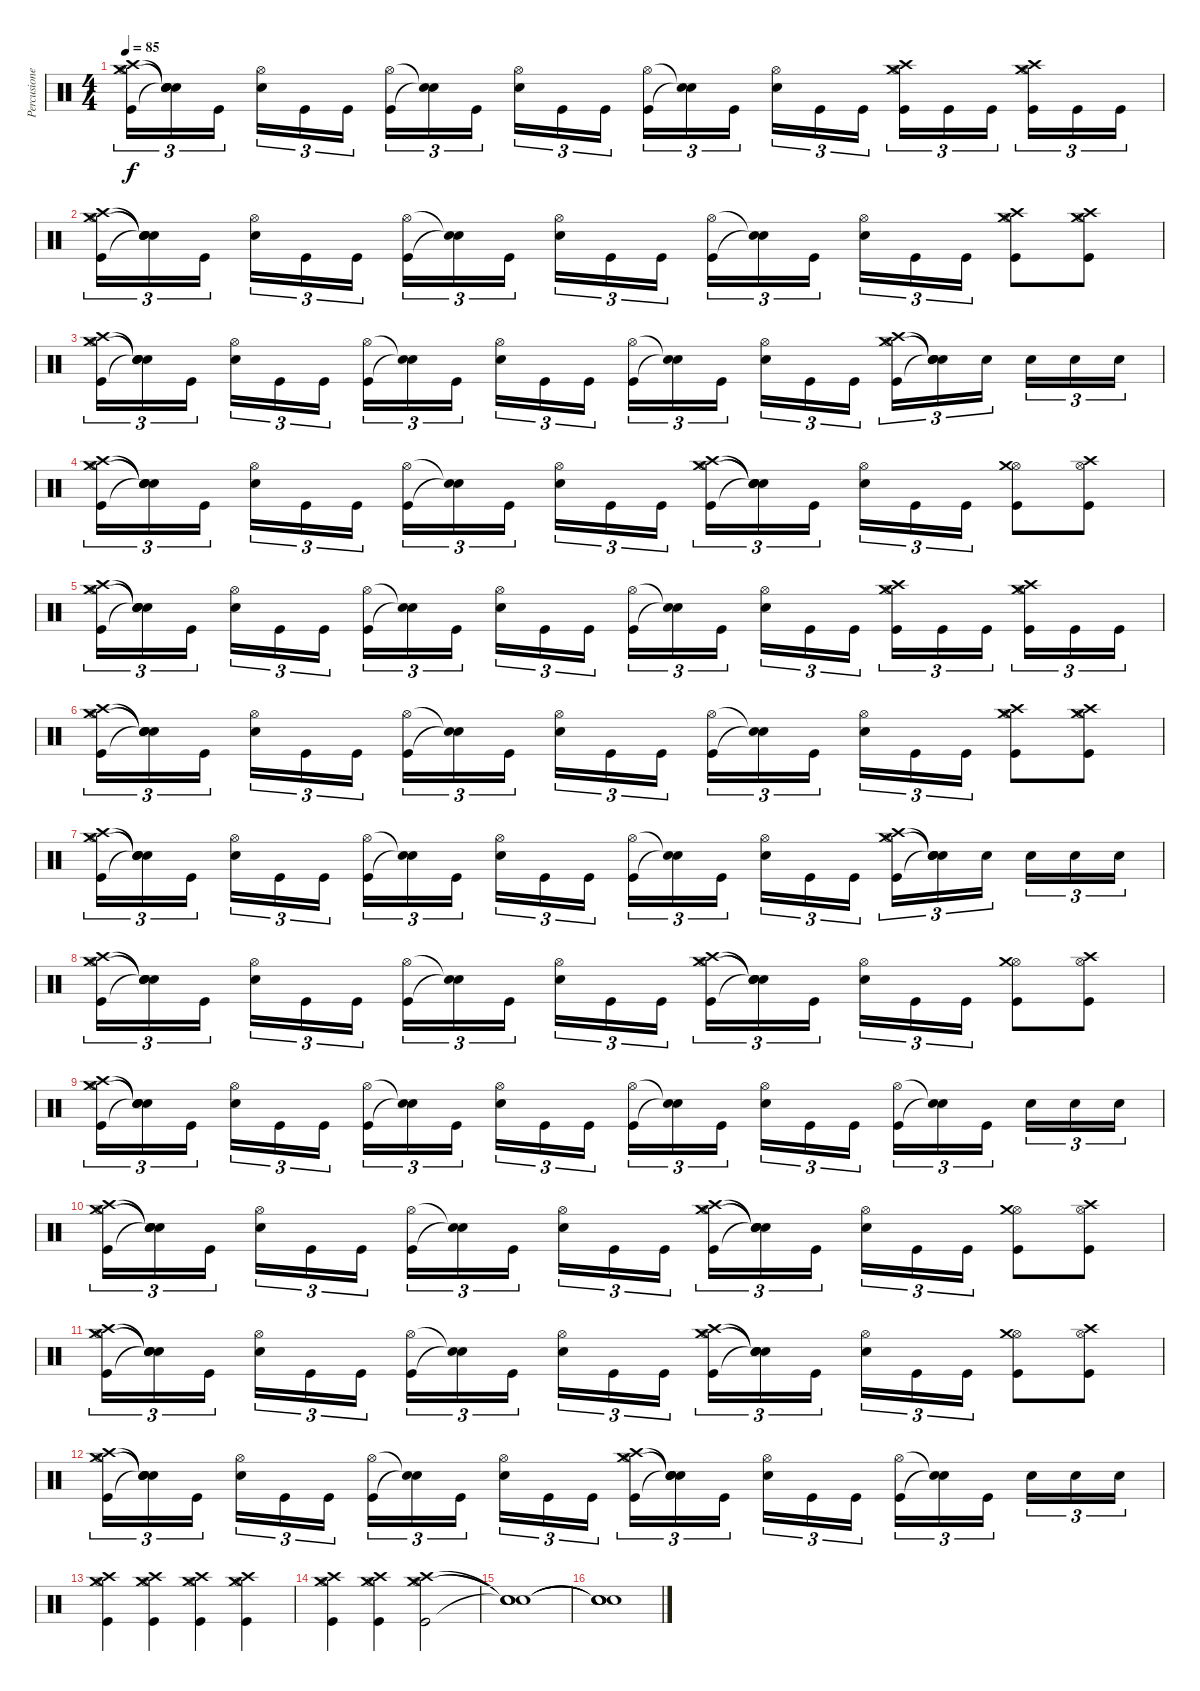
\track ("Percusiones" "Percusione") {instrument percussion}
\staff {score}
\articulation defaults
\ts (4 4)
\tempo 85
\clef neutral
\ks c
("Hi-Hat (open)" "Crash high (hit)" "Crash medium (hit)" "Kick (hit)").16{tu (3 2) dy f} ("Snare (hit)"{t} "Snare (hit)"{t} "Snare (hit)"{t} "Snare (hit)"{t}).16{tu (3 2)} "Kick (hit)".16{tu (3 2)} ("Hi-Hat (open)" "Electric Snare (hit)").16{tu (3 2)} "Kick (hit)".16{tu (3 2)} "Kick (hit)".16{tu (3 2)} ("Hi-Hat (open)" "Kick (hit)").16{tu (3 2)} ("Snare (hit)"{t} "Snare (hit)"{t}).16{tu (3 2)} "Kick (hit)".16{tu (3 2)} ("Hi-Hat (open)" "Electric Snare (hit)").16{tu (3 2)} "Kick (hit)".16{tu (3 2)} "Kick (hit)".16{tu (3 2)} ("Hi-Hat (open)" "Kick (hit)").16{tu (3 2)} ("Snare (hit)"{t} "Snare (hit)"{t}).16{tu (3 2)} "Kick (hit)".16{tu (3 2)} ("Hi-Hat (open)" "Electric Snare (hit)").16{tu (3 2)} "Kick (hit)".16{tu (3 2)} "Kick (hit)".16{tu (3 2)} ("Hi-Hat (open)" "Crash medium (hit)" "Crash high (hit)" "Kick (hit)").16{tu (3 2)} "Kick (hit)".16{tu (3 2)} "Kick (hit)".16{tu (3 2)} ("Hi-Hat (open)" "Crash high (hit)" "Crash medium (hit)" "Kick (hit)").16{tu (3 2)} "Kick (hit)".16{tu (3 2)} "Kick (hit)".16{tu (3 2)} |
("Hi-Hat (open)" "Crash high (hit)" "Crash medium (hit)" "Kick (hit)").16{tu (3 2)} ("Snare (hit)"{t} "Snare (hit)"{t} "Snare (hit)"{t} "Snare (hit)"{t}).16{tu (3 2)} "Kick (hit)".16{tu (3 2)} ("Hi-Hat (open)" "Electric Snare (hit)").16{tu (3 2)} "Kick (hit)".16{tu (3 2)} "Kick (hit)".16{tu (3 2)} ("Hi-Hat (open)" "Kick (hit)").16{tu (3 2)} ("Snare (hit)"{t} "Snare (hit)"{t}).16{tu (3 2)} "Kick (hit)".16{tu (3 2)} ("Hi-Hat (open)" "Electric Snare (hit)").16{tu (3 2)} "Kick (hit)".16{tu (3 2)} "Kick (hit)".16{tu (3 2)} ("Hi-Hat (open)" "Kick (hit)").16{tu (3 2)} ("Snare (hit)"{t} "Snare (hit)"{t}).16{tu (3 2)} "Kick (hit)".16{tu (3 2)} ("Hi-Hat (open)" "Electric Snare (hit)").16{tu (3 2)} "Kick (hit)".16{tu (3 2)} "Kick (hit)".16{tu (3 2)} ("Hi-Hat (open)" "Crash medium (hit)" "Crash high (hit)" "Kick (hit)").8 ("Hi-Hat (open)" "Crash high (hit)" "Crash medium (hit)" "Kick (hit)").8 |
("Hi-Hat (open)" "Crash high (hit)" "Crash medium (hit)" "Kick (hit)").16{tu (3 2)} ("Snare (hit)"{t} "Snare (hit)"{t} "Snare (hit)"{t} "Snare (hit)"{t}).16{tu (3 2)} "Kick (hit)".16{tu (3 2)} ("Hi-Hat (open)" "Electric Snare (hit)").16{tu (3 2)} "Kick (hit)".16{tu (3 2)} "Kick (hit)".16{tu (3 2)} ("Hi-Hat (open)" "Kick (hit)").16{tu (3 2)} ("Snare (hit)"{t} "Snare (hit)"{t}).16{tu (3 2)} "Kick (hit)".16{tu (3 2)} ("Hi-Hat (open)" "Electric Snare (hit)").16{tu (3 2)} "Kick (hit)".16{tu (3 2)} "Kick (hit)".16{tu (3 2)} ("Hi-Hat (open)" "Kick (hit)").16{tu (3 2)} ("Snare (hit)"{t} "Snare (hit)"{t}).16{tu (3 2)} "Kick (hit)".16{tu (3 2)} ("Hi-Hat (open)" "Electric Snare (hit)").16{tu (3 2)} "Kick (hit)".16{tu (3 2)} "Kick (hit)".16{tu (3 2)} ("Hi-Hat (open)" "Crash medium (hit)" "Crash high (hit)" "Kick (hit)").16{tu (3 2)} ("Snare (hit)"{t} "Snare (hit)"{t} "Snare (hit)"{t} "Snare (hit)"{t}).16{tu (3 2)} "Electric Snare (hit)".16{tu (3 2)} "Electric Snare (hit)".16{tu (3 2)} "Electric Snare (hit)".16{tu (3 2)} "Electric Snare (hit)".16{tu (3 2)} |
("Hi-Hat (open)" "Crash high (hit)" "Crash medium (hit)" "Kick (hit)").16{tu (3 2)} ("Snare (hit)"{t} "Snare (hit)"{t} "Snare (hit)"{t} "Snare (hit)"{t}).16{tu (3 2)} "Kick (hit)".16{tu (3 2)} ("Hi-Hat (open)" "Electric Snare (hit)").16{tu (3 2)} "Kick (hit)".16{tu (3 2)} "Kick (hit)".16{tu (3 2)} ("Hi-Hat (open)" "Kick (hit)").16{tu (3 2)} ("Snare (hit)"{t} "Snare (hit)"{t}).16{tu (3 2)} "Kick (hit)".16{tu (3 2)} ("Hi-Hat (open)" "Electric Snare (hit)").16{tu (3 2)} "Kick (hit)".16{tu (3 2)} "Kick (hit)".16{tu (3 2)} ("Hi-Hat (open)" "Crash high (hit)" "Crash medium (hit)" "Kick (hit)").16{tu (3 2)} ("Snare (hit)"{t} "Snare (hit)"{t} "Snare (hit)"{t} "Snare (hit)"{t}).16{tu (3 2)} "Kick (hit)".16{tu (3 2)} ("Hi-Hat (open)" "Electric Snare (hit)").16{tu (3 2)} "Kick (hit)".16{tu (3 2)} "Kick (hit)".16{tu (3 2)} ("Hi-Hat (open)" "Crash medium (hit)" "Kick (hit)").8 ("Hi-Hat (open)" "Crash high (hit)" "Kick (hit)").8 |
("Hi-Hat (open)" "Crash high (hit)" "Crash medium (hit)" "Kick (hit)").16{tu (3 2)} ("Snare (hit)"{t} "Snare (hit)"{t} "Snare (hit)"{t} "Snare (hit)"{t}).16{tu (3 2)} "Kick (hit)".16{tu (3 2)} ("Hi-Hat (open)" "Electric Snare (hit)").16{tu (3 2)} "Kick (hit)".16{tu (3 2)} "Kick (hit)".16{tu (3 2)} ("Hi-Hat (open)" "Kick (hit)").16{tu (3 2)} ("Snare (hit)"{t} "Snare (hit)"{t}).16{tu (3 2)} "Kick (hit)".16{tu (3 2)} ("Hi-Hat (open)" "Electric Snare (hit)").16{tu (3 2)} "Kick (hit)".16{tu (3 2)} "Kick (hit)".16{tu (3 2)} ("Hi-Hat (open)" "Kick (hit)").16{tu (3 2)} ("Snare (hit)"{t} "Snare (hit)"{t}).16{tu (3 2)} "Kick (hit)".16{tu (3 2)} ("Hi-Hat (open)" "Electric Snare (hit)").16{tu (3 2)} "Kick (hit)".16{tu (3 2)} "Kick (hit)".16{tu (3 2)} ("Hi-Hat (open)" "Crash medium (hit)" "Crash high (hit)" "Kick (hit)").16{tu (3 2)} "Kick (hit)".16{tu (3 2)} "Kick (hit)".16{tu (3 2)} ("Hi-Hat (open)" "Crash high (hit)" "Crash medium (hit)" "Kick (hit)").16{tu (3 2)} "Kick (hit)".16{tu (3 2)} "Kick (hit)".16{tu (3 2)} |
("Hi-Hat (open)" "Crash high (hit)" "Crash medium (hit)" "Kick (hit)").16{tu (3 2)} ("Snare (hit)"{t} "Snare (hit)"{t} "Snare (hit)"{t} "Snare (hit)"{t}).16{tu (3 2)} "Kick (hit)".16{tu (3 2)} ("Hi-Hat (open)" "Electric Snare (hit)").16{tu (3 2)} "Kick (hit)".16{tu (3 2)} "Kick (hit)".16{tu (3 2)} ("Hi-Hat (open)" "Kick (hit)").16{tu (3 2)} ("Snare (hit)"{t} "Snare (hit)"{t}).16{tu (3 2)} "Kick (hit)".16{tu (3 2)} ("Hi-Hat (open)" "Electric Snare (hit)").16{tu (3 2)} "Kick (hit)".16{tu (3 2)} "Kick (hit)".16{tu (3 2)} ("Hi-Hat (open)" "Kick (hit)").16{tu (3 2)} ("Snare (hit)"{t} "Snare (hit)"{t}).16{tu (3 2)} "Kick (hit)".16{tu (3 2)} ("Hi-Hat (open)" "Electric Snare (hit)").16{tu (3 2)} "Kick (hit)".16{tu (3 2)} "Kick (hit)".16{tu (3 2)} ("Hi-Hat (open)" "Crash medium (hit)" "Crash high (hit)" "Kick (hit)").8 ("Hi-Hat (open)" "Crash high (hit)" "Crash medium (hit)" "Kick (hit)").8 |
("Hi-Hat (open)" "Crash high (hit)" "Crash medium (hit)" "Kick (hit)").16{tu (3 2)} ("Snare (hit)"{t} "Snare (hit)"{t} "Snare (hit)"{t} "Snare (hit)"{t}).16{tu (3 2)} "Kick (hit)".16{tu (3 2)} ("Hi-Hat (open)" "Electric Snare (hit)").16{tu (3 2)} "Kick (hit)".16{tu (3 2)} "Kick (hit)".16{tu (3 2)} ("Hi-Hat (open)" "Kick (hit)").16{tu (3 2)} ("Snare (hit)"{t} "Snare (hit)"{t}).16{tu (3 2)} "Kick (hit)".16{tu (3 2)} ("Hi-Hat (open)" "Electric Snare (hit)").16{tu (3 2)} "Kick (hit)".16{tu (3 2)} "Kick (hit)".16{tu (3 2)} ("Hi-Hat (open)" "Kick (hit)").16{tu (3 2)} ("Snare (hit)"{t} "Snare (hit)"{t}).16{tu (3 2)} "Kick (hit)".16{tu (3 2)} ("Hi-Hat (open)" "Electric Snare (hit)").16{tu (3 2)} "Kick (hit)".16{tu (3 2)} "Kick (hit)".16{tu (3 2)} ("Hi-Hat (open)" "Crash medium (hit)" "Crash high (hit)" "Kick (hit)").16{tu (3 2)} ("Snare (hit)"{t} "Snare (hit)"{t} "Snare (hit)"{t} "Snare (hit)"{t}).16{tu (3 2)} "Electric Snare (hit)".16{tu (3 2)} "Electric Snare (hit)".16{tu (3 2)} "Electric Snare (hit)".16{tu (3 2)} "Electric Snare (hit)".16{tu (3 2)} |
("Hi-Hat (open)" "Crash high (hit)" "Crash medium (hit)" "Kick (hit)").16{tu (3 2)} ("Snare (hit)"{t} "Snare (hit)"{t} "Snare (hit)"{t} "Snare (hit)"{t}).16{tu (3 2)} "Kick (hit)".16{tu (3 2)} ("Hi-Hat (open)" "Electric Snare (hit)").16{tu (3 2)} "Kick (hit)".16{tu (3 2)} "Kick (hit)".16{tu (3 2)} ("Hi-Hat (open)" "Kick (hit)").16{tu (3 2)} ("Snare (hit)"{t} "Snare (hit)"{t}).16{tu (3 2)} "Kick (hit)".16{tu (3 2)} ("Hi-Hat (open)" "Electric Snare (hit)").16{tu (3 2)} "Kick (hit)".16{tu (3 2)} "Kick (hit)".16{tu (3 2)} ("Hi-Hat (open)" "Crash high (hit)" "Crash medium (hit)" "Kick (hit)").16{tu (3 2)} ("Snare (hit)"{t} "Snare (hit)"{t} "Snare (hit)"{t} "Snare (hit)"{t}).16{tu (3 2)} "Kick (hit)".16{tu (3 2)} ("Hi-Hat (open)" "Electric Snare (hit)").16{tu (3 2)} "Kick (hit)".16{tu (3 2)} "Kick (hit)".16{tu (3 2)} ("Hi-Hat (open)" "Crash medium (hit)" "Kick (hit)").8 ("Hi-Hat (open)" "Crash high (hit)" "Kick (hit)").8 |
("Hi-Hat (open)" "Crash high (hit)" "Crash medium (hit)" "Kick (hit)").16{tu (3 2)} ("Snare (hit)"{t} "Snare (hit)"{t} "Snare (hit)"{t} "Snare (hit)"{t}).16{tu (3 2)} "Kick (hit)".16{tu (3 2)} ("Hi-Hat (open)" "Electric Snare (hit)").16{tu (3 2)} "Kick (hit)".16{tu (3 2)} "Kick (hit)".16{tu (3 2)} ("Hi-Hat (open)" "Kick (hit)").16{tu (3 2)} ("Snare (hit)"{t} "Snare (hit)"{t}).16{tu (3 2)} "Kick (hit)".16{tu (3 2)} ("Hi-Hat (open)" "Electric Snare (hit)").16{tu (3 2)} "Kick (hit)".16{tu (3 2)} "Kick (hit)".16{tu (3 2)} ("Hi-Hat (open)" "Kick (hit)").16{tu (3 2)} ("Snare (hit)"{t} "Snare (hit)"{t}).16{tu (3 2)} "Kick (hit)".16{tu (3 2)} ("Hi-Hat (open)" "Electric Snare (hit)").16{tu (3 2)} "Kick (hit)".16{tu (3 2)} "Kick (hit)".16{tu (3 2)} ("Hi-Hat (open)" "Kick (hit)").16{tu (3 2)} ("Snare (hit)"{t} "Snare (hit)"{t}).16{tu (3 2)} "Kick (hit)".16{tu (3 2)} "Electric Snare (hit)".16{tu (3 2)} "Electric Snare (hit)".16{tu (3 2)} "Electric Snare (hit)".16{tu (3 2)} |
("Hi-Hat (open)" "Crash high (hit)" "Crash medium (hit)" "Kick (hit)").16{tu (3 2)} ("Snare (hit)"{t} "Snare (hit)"{t} "Snare (hit)"{t} "Snare (hit)"{t}).16{tu (3 2)} "Kick (hit)".16{tu (3 2)} ("Hi-Hat (open)" "Electric Snare (hit)").16{tu (3 2)} "Kick (hit)".16{tu (3 2)} "Kick (hit)".16{tu (3 2)} ("Hi-Hat (open)" "Kick (hit)").16{tu (3 2)} ("Snare (hit)"{t} "Snare (hit)"{t}).16{tu (3 2)} "Kick (hit)".16{tu (3 2)} ("Hi-Hat (open)" "Electric Snare (hit)").16{tu (3 2)} "Kick (hit)".16{tu (3 2)} "Kick (hit)".16{tu (3 2)} ("Hi-Hat (open)" "Crash high (hit)" "Crash medium (hit)" "Kick (hit)").16{tu (3 2)} ("Snare (hit)"{t} "Snare (hit)"{t} "Snare (hit)"{t} "Snare (hit)"{t}).16{tu (3 2)} "Kick (hit)".16{tu (3 2)} ("Hi-Hat (open)" "Electric Snare (hit)").16{tu (3 2)} "Kick (hit)".16{tu (3 2)} "Kick (hit)".16{tu (3 2)} ("Hi-Hat (open)" "Crash medium (hit)" "Kick (hit)").8 ("Hi-Hat (open)" "Crash high (hit)" "Kick (hit)").8 |
("Hi-Hat (open)" "Crash high (hit)" "Crash medium (hit)" "Kick (hit)").16{tu (3 2)} ("Snare (hit)"{t} "Snare (hit)"{t} "Snare (hit)"{t} "Snare (hit)"{t}).16{tu (3 2)} "Kick (hit)".16{tu (3 2)} ("Hi-Hat (open)" "Electric Snare (hit)").16{tu (3 2)} "Kick (hit)".16{tu (3 2)} "Kick (hit)".16{tu (3 2)} ("Hi-Hat (open)" "Kick (hit)").16{tu (3 2)} ("Snare (hit)"{t} "Snare (hit)"{t}).16{tu (3 2)} "Kick (hit)".16{tu (3 2)} ("Hi-Hat (open)" "Electric Snare (hit)").16{tu (3 2)} "Kick (hit)".16{tu (3 2)} "Kick (hit)".16{tu (3 2)} ("Hi-Hat (open)" "Crash high (hit)" "Crash medium (hit)" "Kick (hit)").16{tu (3 2)} ("Snare (hit)"{t} "Snare (hit)"{t} "Snare (hit)"{t} "Snare (hit)"{t}).16{tu (3 2)} "Kick (hit)".16{tu (3 2)} ("Hi-Hat (open)" "Electric Snare (hit)").16{tu (3 2)} "Kick (hit)".16{tu (3 2)} "Kick (hit)".16{tu (3 2)} ("Hi-Hat (open)" "Crash medium (hit)" "Kick (hit)").8 ("Hi-Hat (open)" "Crash high (hit)" "Kick (hit)").8 |
("Hi-Hat (open)" "Crash high (hit)" "Crash medium (hit)" "Kick (hit)").16{tu (3 2)} ("Snare (hit)"{t} "Snare (hit)"{t} "Snare (hit)"{t} "Snare (hit)"{t}).16{tu (3 2)} "Kick (hit)".16{tu (3 2)} ("Hi-Hat (open)" "Electric Snare (hit)").16{tu (3 2)} "Kick (hit)".16{tu (3 2)} "Kick (hit)".16{tu (3 2)} ("Hi-Hat (open)" "Kick (hit)").16{tu (3 2)} ("Snare (hit)"{t} "Snare (hit)"{t}).16{tu (3 2)} "Kick (hit)".16{tu (3 2)} ("Hi-Hat (open)" "Electric Snare (hit)").16{tu (3 2)} "Kick (hit)".16{tu (3 2)} "Kick (hit)".16{tu (3 2)} ("Hi-Hat (open)" "Crash high (hit)" "Crash medium (hit)" "Kick (hit)").16{tu (3 2)} ("Snare (hit)"{t} "Snare (hit)"{t} "Snare (hit)"{t} "Snare (hit)"{t}).16{tu (3 2)} "Kick (hit)".16{tu (3 2)} ("Hi-Hat (open)" "Electric Snare (hit)").16{tu (3 2)} "Kick (hit)".16{tu (3 2)} "Kick (hit)".16{tu (3 2)} ("Hi-Hat (open)" "Kick (hit)").16{tu (3 2)} ("Snare (hit)"{t} "Snare (hit)"{t}).16{tu (3 2)} "Kick (hit)".16{tu (3 2)} "Electric Snare (hit)".16{tu (3 2)} "Electric Snare (hit)".16{tu (3 2)} "Electric Snare (hit)".16{tu (3 2)} |
("Hi-Hat (open)" "Crash high (hit)" "Crash medium (hit)" "Kick (hit)").4 ("Hi-Hat (open)" "Crash high (hit)" "Crash medium (hit)" "Kick (hit)").4 ("Hi-Hat (open)" "Crash high (hit)" "Crash medium (hit)" "Kick (hit)").4 ("Hi-Hat (open)" "Crash high (hit)" "Crash medium (hit)" "Kick (hit)").4 |
("Hi-Hat (open)" "Crash high (hit)" "Crash medium (hit)" "Kick (hit)").4 ("Hi-Hat (open)" "Crash high (hit)" "Crash medium (hit)" "Kick (hit)").4 ("Hi-Hat (open)" "Crash high (hit)" "Crash medium (hit)" "Kick (hit)").2 |
("Snare (hit)"{t} "Snare (hit)"{t} "Snare (hit)"{t} "Snare (hit)"{t}).1 |
("Snare (hit)"{t} "Snare (hit)"{t} "Snare (hit)"{t} "Snare (hit)"{t}).1
